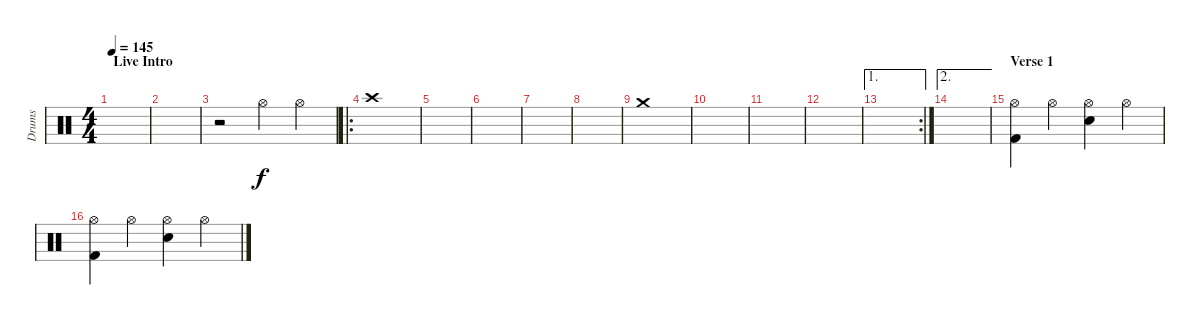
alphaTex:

\track ("Drums" "Drums") {instrument percussion}
\staff {score}
\articulation defaults
\ts (4 4)
\section ("" "Live Intro")
\tempo 145
\clef neutral
\ks c
|
|
r.2 "Hi-Hat (open)".4 "Hi-Hat (open)".4 |
\ro "Crash high (hit)".1
|
|
|
|
|
"Crash medium (hit)".1 |
|
|
|
\ae 1
\rc 2
|
\ae 2
|
\section ("" "Verse 1")
("Hi-Hat (open)" "Kick (hit) 2").4 "Hi-Hat (open)".4 ("Hi-Hat (open)" "Electric Snare (hit)").4 "Hi-Hat (open)".4 |
("Hi-Hat (open)" "Kick (hit) 2").4 "Hi-Hat (open)".4 ("Hi-Hat (open)" "Electric Snare (hit)").4 "Hi-Hat (open)".4
